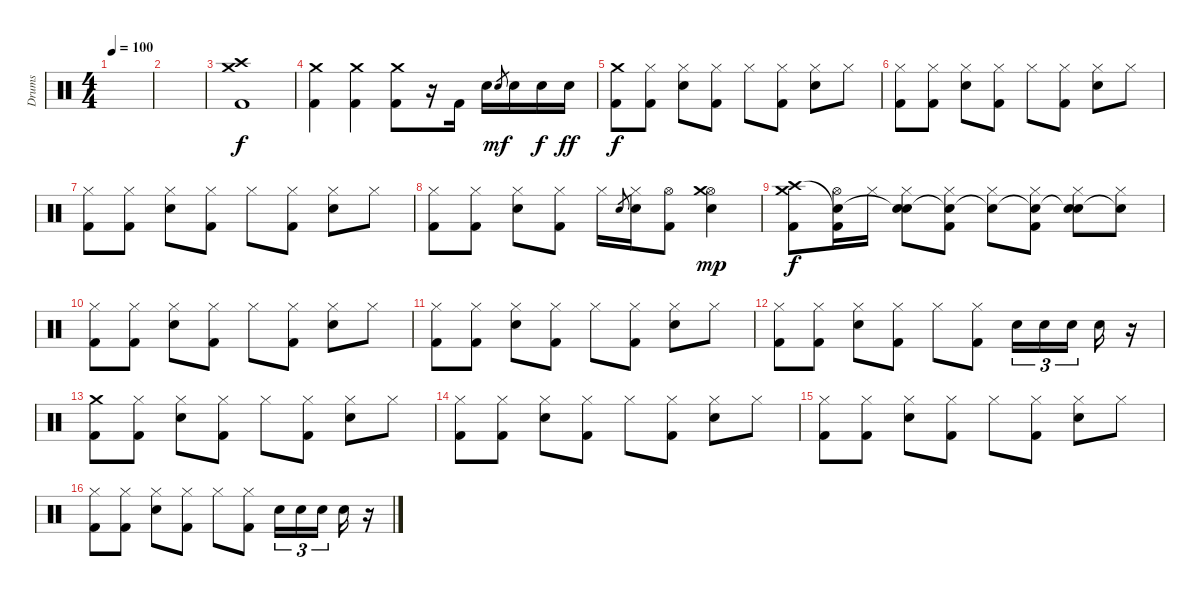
\track ("Drums" "Drums") {instrument percussion}
\staff {score}
\articulation defaults
\ts (4 4)
\tempo 100
\clef neutral
\ks c
|
|
("Crash medium (hit)" "Crash high (hit)" "Kick (hit) 2").1 |
("Crash medium (hit)" "Kick (hit) 2").4 ("Crash medium (hit)" "Kick (hit) 2").4 ("Crash medium (hit)" "Kick (hit) 2").8 r.16 "Kick (hit) 2".16 "Snare (hit) 2".16 "Snare (hit) 2".8{gr dy mf} "Snare (hit) 2".16 "Snare (hit) 2".16{dy f} "Snare (hit) 2".16{dy ff} |
("Crash medium (hit)" "Kick (hit) 2").8{dy f} ("Hi-Hat (closed)" "Kick (hit) 2").8 ("Hi-Hat (closed)" "Snare (hit) 2").8 ("Hi-Hat (closed)" "Kick (hit) 2").8 "Hi-Hat (closed)".8 ("Hi-Hat (closed)" "Kick (hit) 2").8 ("Hi-Hat (closed)" "Snare (hit) 2").8 "Hi-Hat (closed)".8 |
("Hi-Hat (closed)" "Kick (hit) 2").8 ("Hi-Hat (closed)" "Kick (hit) 2").8 ("Hi-Hat (closed)" "Snare (hit) 2").8 ("Hi-Hat (closed)" "Kick (hit) 2").8 "Hi-Hat (closed)".8 ("Hi-Hat (closed)" "Kick (hit) 2").8 ("Hi-Hat (closed)" "Snare (hit) 2").8 "Hi-Hat (closed)".8 |
("Hi-Hat (closed)" "Kick (hit) 2").8 ("Hi-Hat (closed)" "Kick (hit) 2").8 ("Hi-Hat (closed)" "Snare (hit) 2").8 ("Hi-Hat (closed)" "Kick (hit) 2").8 "Hi-Hat (closed)".8 ("Hi-Hat (closed)" "Kick (hit) 2").8 ("Hi-Hat (closed)" "Snare (hit) 2").8 "Hi-Hat (closed)".8 |
("Hi-Hat (closed)" "Kick (hit) 2").8 ("Hi-Hat (closed)" "Kick (hit) 2").8 ("Hi-Hat (closed)" "Snare (hit) 2").8 ("Hi-Hat (closed)" "Kick (hit) 2").8 "Hi-Hat (closed)".16 "Snare (hit) 2".8{gr} ("Hi-Hat (closed)" "Snare (hit) 2").16 ("Hi-Hat (open)" "Kick (hit) 2").8 ("Hi-Hat (open)" "Crash medium (hit)" "Snare (hit) 2").4{dy mp} |
("Crash medium (hit)" "Crash high (hit)" "Kick (hit) 2").8{dy f} ("Hi-Hat (open)" "Snare (hit)"{t} "Kick (hit) 2").16 "Hi-Hat (closed)".16 ("Hi-Hat (closed)" "Snare (hit)"{t} "Snare (hit) 2").8 ("Hi-Hat (closed)" "Snare (hit)"{t} "Kick (hit) 2").8 ("Hi-Hat (closed)" "Snare (hit)"{t}).8 ("Hi-Hat (closed)" "Snare (hit)"{t} "Kick (hit) 2").8 ("Hi-Hat (closed)" "Snare (hit)"{t} "Snare (hit) 2").8 ("Hi-Hat (closed)" "Snare (hit)"{t}).8 |
("Hi-Hat (closed)" "Kick (hit) 2").8 ("Hi-Hat (closed)" "Kick (hit) 2").8 ("Hi-Hat (closed)" "Snare (hit) 2").8 ("Hi-Hat (closed)" "Kick (hit) 2").8 "Hi-Hat (closed)".8 ("Hi-Hat (closed)" "Kick (hit) 2").8 ("Hi-Hat (closed)" "Snare (hit) 2").8 "Hi-Hat (closed)".8 |
("Hi-Hat (closed)" "Kick (hit) 2").8 ("Hi-Hat (closed)" "Kick (hit) 2").8 ("Hi-Hat (closed)" "Snare (hit) 2").8 ("Hi-Hat (closed)" "Kick (hit) 2").8 "Hi-Hat (closed)".8 ("Hi-Hat (closed)" "Kick (hit) 2").8 ("Hi-Hat (closed)" "Snare (hit) 2").8 "Hi-Hat (closed)".8 |
("Hi-Hat (closed)" "Kick (hit) 2").8 ("Hi-Hat (closed)" "Kick (hit) 2").8 ("Hi-Hat (closed)" "Snare (hit) 2").8 ("Hi-Hat (closed)" "Kick (hit) 2").8 "Hi-Hat (closed)".8 ("Hi-Hat (closed)" "Kick (hit) 2").8 "Snare (hit) 2".16{tu (3 2)} "Snare (hit) 2".16{tu (3 2)} "Snare (hit) 2".16{tu (3 2)} "Snare (hit) 2".16 r.16 |
("Crash medium (hit)" "Kick (hit) 2").8 ("Hi-Hat (closed)" "Kick (hit) 2").8 ("Hi-Hat (closed)" "Snare (hit) 2").8 ("Hi-Hat (closed)" "Kick (hit) 2").8 "Hi-Hat (closed)".8 ("Hi-Hat (closed)" "Kick (hit) 2").8 ("Hi-Hat (closed)" "Snare (hit) 2").8 "Hi-Hat (closed)".8 |
("Hi-Hat (closed)" "Kick (hit) 2").8 ("Hi-Hat (closed)" "Kick (hit) 2").8 ("Hi-Hat (closed)" "Snare (hit) 2").8 ("Hi-Hat (closed)" "Kick (hit) 2").8 "Hi-Hat (closed)".8 ("Hi-Hat (closed)" "Kick (hit) 2").8 ("Hi-Hat (closed)" "Snare (hit) 2").8 "Hi-Hat (closed)".8 |
("Hi-Hat (closed)" "Kick (hit) 2").8 ("Hi-Hat (closed)" "Kick (hit) 2").8 ("Hi-Hat (closed)" "Snare (hit) 2").8 ("Hi-Hat (closed)" "Kick (hit) 2").8 "Hi-Hat (closed)".8 ("Hi-Hat (closed)" "Kick (hit) 2").8 ("Hi-Hat (closed)" "Snare (hit) 2").8 "Hi-Hat (closed)".8 |
("Hi-Hat (closed)" "Kick (hit) 2").8 ("Hi-Hat (closed)" "Kick (hit) 2").8 ("Hi-Hat (closed)" "Snare (hit) 2").8 ("Hi-Hat (closed)" "Kick (hit) 2").8 "Hi-Hat (closed)".8 ("Hi-Hat (closed)" "Kick (hit) 2").8 "Snare (hit) 2".16{tu (3 2)} "Snare (hit) 2".16{tu (3 2)} "Snare (hit) 2".16{tu (3 2)} "Snare (hit) 2".16 r.16
